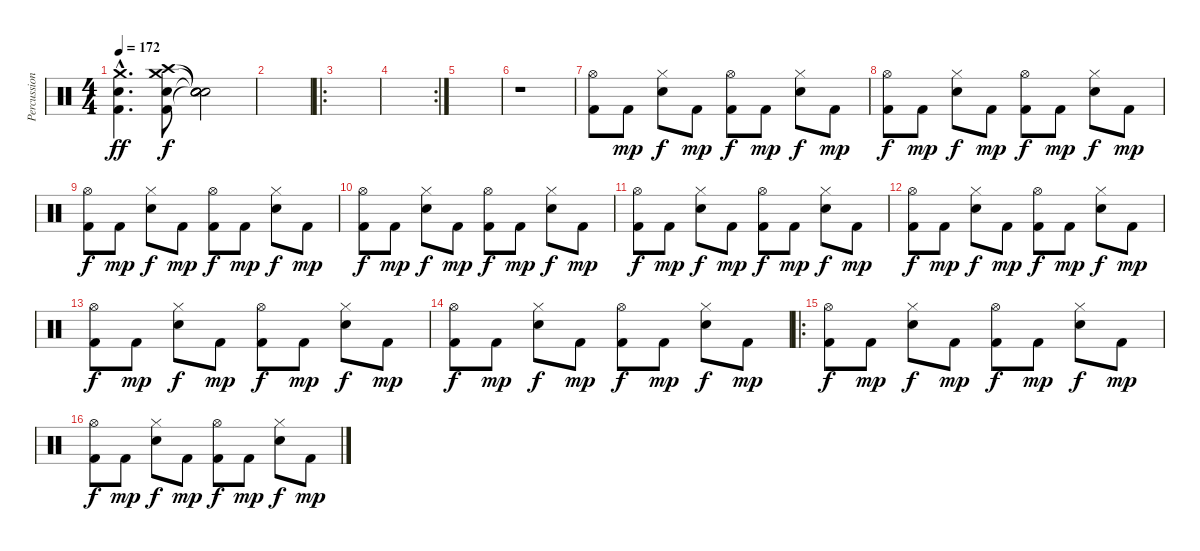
\track ("Percussions" "Percussion") {instrument percussion}
\staff {score}
\articulation defaults
\ts (4 4)
\tempo 172
\clef neutral
\ks c
("Crash medium (hit)"{hac} "Snare (hit) 2"{hac} "Kick (hit) 2"{hac}).4{d dy ff} ("Crash high (hit)" "Crash medium (hit)" "Snare (hit) 2" "Kick (hit) 2").8{dy f} ("Snare (hit)"{t} "Snare (hit)"{t} "Snare (hit)"{t} "Snare (hit)"{t}).2 |
|
\ro
|
\rc 2
|
|
r.1{volume 0} |
("Hi-Hat (open)" "Kick (hit) 2").8{volume 8} "Kick (hit) 2".8{dy mp} ("Hi-Hat (closed)" "Snare (hit) 2").8{dy f} "Kick (hit) 2".8{dy mp} ("Hi-Hat (open)" "Kick (hit) 2").8{dy f} "Kick (hit) 2".8{dy mp} ("Hi-Hat (closed)" "Snare (hit) 2").8{dy f} "Kick (hit) 2".8{dy mp} |
("Hi-Hat (open)" "Kick (hit) 2").8{dy f} "Kick (hit) 2".8{dy mp} ("Hi-Hat (closed)" "Snare (hit) 2").8{dy f} "Kick (hit) 2".8{dy mp} ("Hi-Hat (open)" "Kick (hit) 2").8{dy f} "Kick (hit) 2".8{dy mp} ("Hi-Hat (closed)" "Snare (hit) 2").8{dy f} "Kick (hit) 2".8{dy mp} |
("Hi-Hat (open)" "Kick (hit) 2").8{dy f} "Kick (hit) 2".8{dy mp} ("Hi-Hat (closed)" "Snare (hit) 2").8{dy f} "Kick (hit) 2".8{dy mp} ("Hi-Hat (open)" "Kick (hit) 2").8{dy f} "Kick (hit) 2".8{dy mp} ("Hi-Hat (closed)" "Snare (hit) 2").8{dy f} "Kick (hit) 2".8{dy mp} |
("Hi-Hat (open)" "Kick (hit) 2").8{dy f} "Kick (hit) 2".8{dy mp} ("Hi-Hat (closed)" "Snare (hit) 2").8{dy f} "Kick (hit) 2".8{dy mp} ("Hi-Hat (open)" "Kick (hit) 2").8{dy f} "Kick (hit) 2".8{dy mp} ("Hi-Hat (closed)" "Snare (hit) 2").8{dy f} "Kick (hit) 2".8{dy mp} |
("Hi-Hat (open)" "Kick (hit) 2").8{dy f volume 16} "Kick (hit) 2".8{dy mp} ("Hi-Hat (closed)" "Snare (hit) 2").8{dy f} "Kick (hit) 2".8{dy mp} ("Hi-Hat (open)" "Kick (hit) 2").8{dy f} "Kick (hit) 2".8{dy mp} ("Hi-Hat (closed)" "Snare (hit) 2").8{dy f} "Kick (hit) 2".8{dy mp} |
("Hi-Hat (open)" "Kick (hit) 2").8{dy f} "Kick (hit) 2".8{dy mp} ("Hi-Hat (closed)" "Snare (hit) 2").8{dy f} "Kick (hit) 2".8{dy mp} ("Hi-Hat (open)" "Kick (hit) 2").8{dy f} "Kick (hit) 2".8{dy mp} ("Hi-Hat (closed)" "Snare (hit) 2").8{dy f} "Kick (hit) 2".8{dy mp} |
("Hi-Hat (open)" "Kick (hit) 2").8{dy f} "Kick (hit) 2".8{dy mp} ("Hi-Hat (closed)" "Snare (hit) 2").8{dy f} "Kick (hit) 2".8{dy mp} ("Hi-Hat (open)" "Kick (hit) 2").8{dy f} "Kick (hit) 2".8{dy mp} ("Hi-Hat (closed)" "Snare (hit) 2").8{dy f} "Kick (hit) 2".8{dy mp} |
("Hi-Hat (open)" "Kick (hit) 2").8{dy f} "Kick (hit) 2".8{dy mp} ("Hi-Hat (closed)" "Snare (hit) 2").8{dy f} "Kick (hit) 2".8{dy mp} ("Hi-Hat (open)" "Kick (hit) 2").8{dy f} "Kick (hit) 2".8{dy mp} ("Hi-Hat (closed)" "Snare (hit) 2").8{dy f} "Kick (hit) 2".8{dy mp} |
\ro
("Hi-Hat (open)" "Kick (hit) 2").8{dy f} "Kick (hit) 2".8{dy mp} ("Hi-Hat (closed)" "Snare (hit) 2").8{dy f} "Kick (hit) 2".8{dy mp} ("Hi-Hat (open)" "Kick (hit) 2").8{dy f} "Kick (hit) 2".8{dy mp} ("Hi-Hat (closed)" "Snare (hit) 2").8{dy f} "Kick (hit) 2".8{dy mp} |
("Hi-Hat (open)" "Kick (hit) 2").8{dy f} "Kick (hit) 2".8{dy mp} ("Hi-Hat (closed)" "Snare (hit) 2").8{dy f} "Kick (hit) 2".8{dy mp} ("Hi-Hat (open)" "Kick (hit) 2").8{dy f} "Kick (hit) 2".8{dy mp} ("Hi-Hat (closed)" "Snare (hit) 2").8{dy f} "Kick (hit) 2".8{dy mp}
